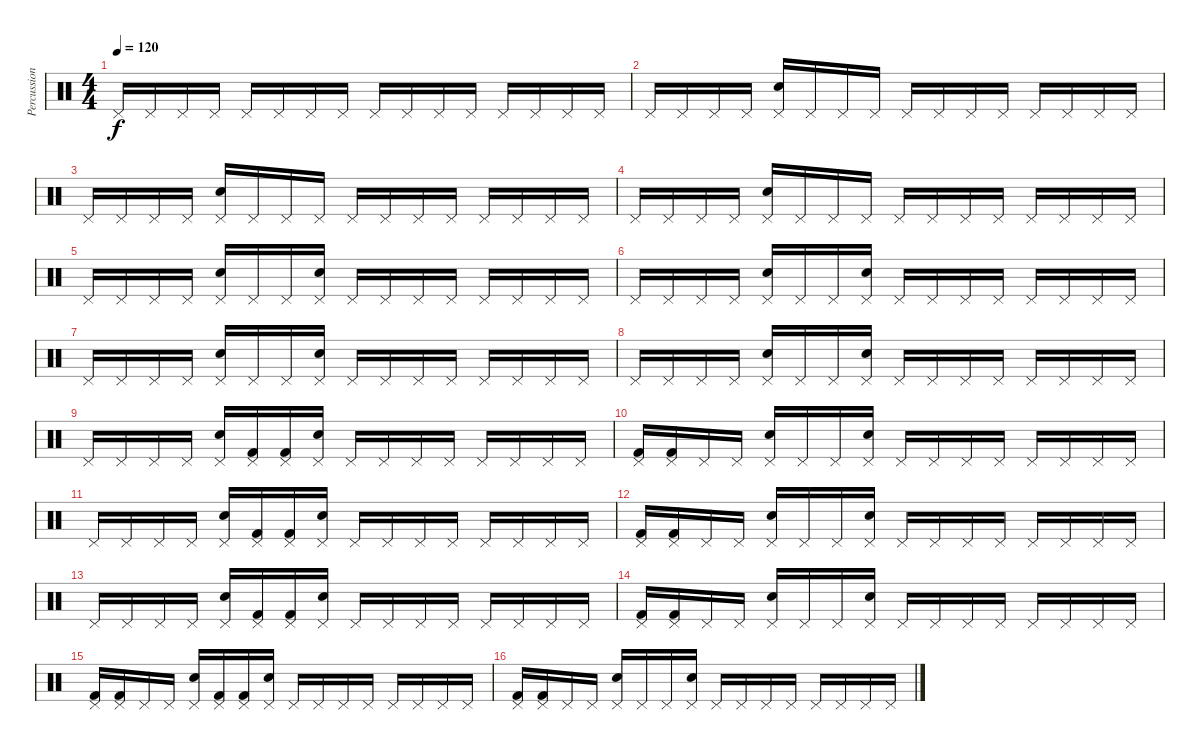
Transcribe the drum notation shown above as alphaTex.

\track ("Percussions" "Percussion") {instrument percussion}
\staff {score}
\articulation defaults
\ts (4 4)
\tempo 120
\clef neutral
\ks c "Pedal Hi-Hat (hit)".16{dy f} "Pedal Hi-Hat (hit)".16 "Pedal Hi-Hat (hit)".16 "Pedal Hi-Hat (hit)".16 "Pedal Hi-Hat (hit)".16 "Pedal Hi-Hat (hit)".16 "Pedal Hi-Hat (hit)".16 "Pedal Hi-Hat (hit)".16 "Pedal Hi-Hat (hit)".16 "Pedal Hi-Hat (hit)".16 "Pedal Hi-Hat (hit)".16 "Pedal Hi-Hat (hit)".16 "Pedal Hi-Hat (hit)".16 "Pedal Hi-Hat (hit)".16 "Pedal Hi-Hat (hit)".16 "Pedal Hi-Hat (hit)".16
|
"Pedal Hi-Hat (hit)".16 "Pedal Hi-Hat (hit)".16 "Pedal Hi-Hat (hit)".16 "Pedal Hi-Hat (hit)".16 ("Snare (hit) 2" "Pedal Hi-Hat (hit)").16 "Pedal Hi-Hat (hit)".16 "Pedal Hi-Hat (hit)".16 "Pedal Hi-Hat (hit)".16 "Pedal Hi-Hat (hit)".16 "Pedal Hi-Hat (hit)".16 "Pedal Hi-Hat (hit)".16 "Pedal Hi-Hat (hit)".16 "Pedal Hi-Hat (hit)".16 "Pedal Hi-Hat (hit)".16 "Pedal Hi-Hat (hit)".16 "Pedal Hi-Hat (hit)".16 |
"Pedal Hi-Hat (hit)".16 "Pedal Hi-Hat (hit)".16 "Pedal Hi-Hat (hit)".16 "Pedal Hi-Hat (hit)".16 ("Snare (hit) 2" "Pedal Hi-Hat (hit)").16 "Pedal Hi-Hat (hit)".16 "Pedal Hi-Hat (hit)".16 "Pedal Hi-Hat (hit)".16 "Pedal Hi-Hat (hit)".16 "Pedal Hi-Hat (hit)".16 "Pedal Hi-Hat (hit)".16 "Pedal Hi-Hat (hit)".16 "Pedal Hi-Hat (hit)".16 "Pedal Hi-Hat (hit)".16 "Pedal Hi-Hat (hit)".16 "Pedal Hi-Hat (hit)".16 |
"Pedal Hi-Hat (hit)".16 "Pedal Hi-Hat (hit)".16 "Pedal Hi-Hat (hit)".16 "Pedal Hi-Hat (hit)".16 ("Snare (hit) 2" "Pedal Hi-Hat (hit)").16 "Pedal Hi-Hat (hit)".16 "Pedal Hi-Hat (hit)".16 "Pedal Hi-Hat (hit)".16 "Pedal Hi-Hat (hit)".16 "Pedal Hi-Hat (hit)".16 "Pedal Hi-Hat (hit)".16 "Pedal Hi-Hat (hit)".16 "Pedal Hi-Hat (hit)".16 "Pedal Hi-Hat (hit)".16 "Pedal Hi-Hat (hit)".16 "Pedal Hi-Hat (hit)".16 |
"Pedal Hi-Hat (hit)".16 "Pedal Hi-Hat (hit)".16 "Pedal Hi-Hat (hit)".16 "Pedal Hi-Hat (hit)".16 ("Snare (hit) 2" "Pedal Hi-Hat (hit)").16 "Pedal Hi-Hat (hit)".16 "Pedal Hi-Hat (hit)".16 ("Snare (hit) 2" "Pedal Hi-Hat (hit)").16 "Pedal Hi-Hat (hit)".16 "Pedal Hi-Hat (hit)".16 "Pedal Hi-Hat (hit)".16 "Pedal Hi-Hat (hit)".16 "Pedal Hi-Hat (hit)".16 "Pedal Hi-Hat (hit)".16 "Pedal Hi-Hat (hit)".16 "Pedal Hi-Hat (hit)".16 |
"Pedal Hi-Hat (hit)".16 "Pedal Hi-Hat (hit)".16 "Pedal Hi-Hat (hit)".16 "Pedal Hi-Hat (hit)".16 ("Snare (hit) 2" "Pedal Hi-Hat (hit)").16 "Pedal Hi-Hat (hit)".16 "Pedal Hi-Hat (hit)".16 ("Snare (hit) 2" "Pedal Hi-Hat (hit)").16 "Pedal Hi-Hat (hit)".16 "Pedal Hi-Hat (hit)".16 "Pedal Hi-Hat (hit)".16 "Pedal Hi-Hat (hit)".16 "Pedal Hi-Hat (hit)".16 "Pedal Hi-Hat (hit)".16 "Pedal Hi-Hat (hit)".16 "Pedal Hi-Hat (hit)".16 |
"Pedal Hi-Hat (hit)".16 "Pedal Hi-Hat (hit)".16 "Pedal Hi-Hat (hit)".16 "Pedal Hi-Hat (hit)".16 ("Snare (hit) 2" "Pedal Hi-Hat (hit)").16 "Pedal Hi-Hat (hit)".16 "Pedal Hi-Hat (hit)".16 ("Snare (hit) 2" "Pedal Hi-Hat (hit)").16 "Pedal Hi-Hat (hit)".16 "Pedal Hi-Hat (hit)".16 "Pedal Hi-Hat (hit)".16 "Pedal Hi-Hat (hit)".16 "Pedal Hi-Hat (hit)".16 "Pedal Hi-Hat (hit)".16 "Pedal Hi-Hat (hit)".16 "Pedal Hi-Hat (hit)".16 |
"Pedal Hi-Hat (hit)".16 "Pedal Hi-Hat (hit)".16 "Pedal Hi-Hat (hit)".16 "Pedal Hi-Hat (hit)".16 ("Snare (hit) 2" "Pedal Hi-Hat (hit)").16 "Pedal Hi-Hat (hit)".16 "Pedal Hi-Hat (hit)".16 ("Snare (hit) 2" "Pedal Hi-Hat (hit)").16 "Pedal Hi-Hat (hit)".16 "Pedal Hi-Hat (hit)".16 "Pedal Hi-Hat (hit)".16 "Pedal Hi-Hat (hit)".16 "Pedal Hi-Hat (hit)".16 "Pedal Hi-Hat (hit)".16 "Pedal Hi-Hat (hit)".16 "Pedal Hi-Hat (hit)".16 |
"Pedal Hi-Hat (hit)".16 "Pedal Hi-Hat (hit)".16 "Pedal Hi-Hat (hit)".16 "Pedal Hi-Hat (hit)".16 ("Snare (hit) 2" "Pedal Hi-Hat (hit)").16 ("Kick (hit) 2" "Pedal Hi-Hat (hit)").16 ("Kick (hit) 2" "Pedal Hi-Hat (hit)").16 ("Snare (hit) 2" "Pedal Hi-Hat (hit)").16 "Pedal Hi-Hat (hit)".16 "Pedal Hi-Hat (hit)".16 "Pedal Hi-Hat (hit)".16 "Pedal Hi-Hat (hit)".16 "Pedal Hi-Hat (hit)".16 "Pedal Hi-Hat (hit)".16 "Pedal Hi-Hat (hit)".16 "Pedal Hi-Hat (hit)".16 |
("Kick (hit) 2" "Pedal Hi-Hat (hit)").16 ("Kick (hit) 2" "Pedal Hi-Hat (hit)").16 "Pedal Hi-Hat (hit)".16 "Pedal Hi-Hat (hit)".16 ("Snare (hit) 2" "Pedal Hi-Hat (hit)").16 "Pedal Hi-Hat (hit)".16 "Pedal Hi-Hat (hit)".16 ("Snare (hit) 2" "Pedal Hi-Hat (hit)").16 "Pedal Hi-Hat (hit)".16 "Pedal Hi-Hat (hit)".16 "Pedal Hi-Hat (hit)".16 "Pedal Hi-Hat (hit)".16 "Pedal Hi-Hat (hit)".16 "Pedal Hi-Hat (hit)".16 "Pedal Hi-Hat (hit)".16 "Pedal Hi-Hat (hit)".16 |
"Pedal Hi-Hat (hit)".16 "Pedal Hi-Hat (hit)".16 "Pedal Hi-Hat (hit)".16 "Pedal Hi-Hat (hit)".16 ("Snare (hit) 2" "Pedal Hi-Hat (hit)").16 ("Kick (hit) 2" "Pedal Hi-Hat (hit)").16 ("Kick (hit) 2" "Pedal Hi-Hat (hit)").16 ("Snare (hit) 2" "Pedal Hi-Hat (hit)").16 "Pedal Hi-Hat (hit)".16 "Pedal Hi-Hat (hit)".16 "Pedal Hi-Hat (hit)".16 "Pedal Hi-Hat (hit)".16 "Pedal Hi-Hat (hit)".16 "Pedal Hi-Hat (hit)".16 "Pedal Hi-Hat (hit)".16 "Pedal Hi-Hat (hit)".16 |
("Kick (hit) 2" "Pedal Hi-Hat (hit)").16 ("Kick (hit) 2" "Pedal Hi-Hat (hit)").16 "Pedal Hi-Hat (hit)".16 "Pedal Hi-Hat (hit)".16 ("Snare (hit) 2" "Pedal Hi-Hat (hit)").16 "Pedal Hi-Hat (hit)".16 "Pedal Hi-Hat (hit)".16 ("Snare (hit) 2" "Pedal Hi-Hat (hit)").16 "Pedal Hi-Hat (hit)".16 "Pedal Hi-Hat (hit)".16 "Pedal Hi-Hat (hit)".16 "Pedal Hi-Hat (hit)".16 "Pedal Hi-Hat (hit)".16 "Pedal Hi-Hat (hit)".16 "Pedal Hi-Hat (hit)".16 "Pedal Hi-Hat (hit)".16 |
"Pedal Hi-Hat (hit)".16 "Pedal Hi-Hat (hit)".16 "Pedal Hi-Hat (hit)".16 "Pedal Hi-Hat (hit)".16 ("Snare (hit) 2" "Pedal Hi-Hat (hit)").16 ("Kick (hit) 2" "Pedal Hi-Hat (hit)").16 ("Kick (hit) 2" "Pedal Hi-Hat (hit)").16 ("Snare (hit) 2" "Pedal Hi-Hat (hit)").16 "Pedal Hi-Hat (hit)".16 "Pedal Hi-Hat (hit)".16 "Pedal Hi-Hat (hit)".16 "Pedal Hi-Hat (hit)".16 "Pedal Hi-Hat (hit)".16 "Pedal Hi-Hat (hit)".16 "Pedal Hi-Hat (hit)".16 "Pedal Hi-Hat (hit)".16 |
("Kick (hit) 2" "Pedal Hi-Hat (hit)").16 ("Kick (hit) 2" "Pedal Hi-Hat (hit)").16 "Pedal Hi-Hat (hit)".16 "Pedal Hi-Hat (hit)".16 ("Snare (hit) 2" "Pedal Hi-Hat (hit)").16 "Pedal Hi-Hat (hit)".16 "Pedal Hi-Hat (hit)".16 ("Snare (hit) 2" "Pedal Hi-Hat (hit)").16 "Pedal Hi-Hat (hit)".16 "Pedal Hi-Hat (hit)".16 "Pedal Hi-Hat (hit)".16 "Pedal Hi-Hat (hit)".16 "Pedal Hi-Hat (hit)".16 "Pedal Hi-Hat (hit)".16 "Pedal Hi-Hat (hit)".16 "Pedal Hi-Hat (hit)".16 |
("Kick (hit) 2" "Pedal Hi-Hat (hit)").16 ("Kick (hit) 2" "Pedal Hi-Hat (hit)").16 "Pedal Hi-Hat (hit)".16 "Pedal Hi-Hat (hit)".16 ("Snare (hit) 2" "Pedal Hi-Hat (hit)").16 ("Kick (hit) 2" "Pedal Hi-Hat (hit)").16 ("Kick (hit) 2" "Pedal Hi-Hat (hit)").16 ("Snare (hit) 2" "Pedal Hi-Hat (hit)").16 "Pedal Hi-Hat (hit)".16 "Pedal Hi-Hat (hit)".16 "Pedal Hi-Hat (hit)".16 "Pedal Hi-Hat (hit)".16 "Pedal Hi-Hat (hit)".16 "Pedal Hi-Hat (hit)".16 "Pedal Hi-Hat (hit)".16 "Pedal Hi-Hat (hit)".16 |
("Kick (hit) 2" "Pedal Hi-Hat (hit)").16 ("Kick (hit) 2" "Pedal Hi-Hat (hit)").16 "Pedal Hi-Hat (hit)".16 "Pedal Hi-Hat (hit)".16 ("Snare (hit) 2" "Pedal Hi-Hat (hit)").16 "Pedal Hi-Hat (hit)".16 "Pedal Hi-Hat (hit)".16 ("Snare (hit) 2" "Pedal Hi-Hat (hit)").16 "Pedal Hi-Hat (hit)".16 "Pedal Hi-Hat (hit)".16 "Pedal Hi-Hat (hit)".16 "Pedal Hi-Hat (hit)".16 "Pedal Hi-Hat (hit)".16 "Pedal Hi-Hat (hit)".16 "Pedal Hi-Hat (hit)".16 "Pedal Hi-Hat (hit)".16
